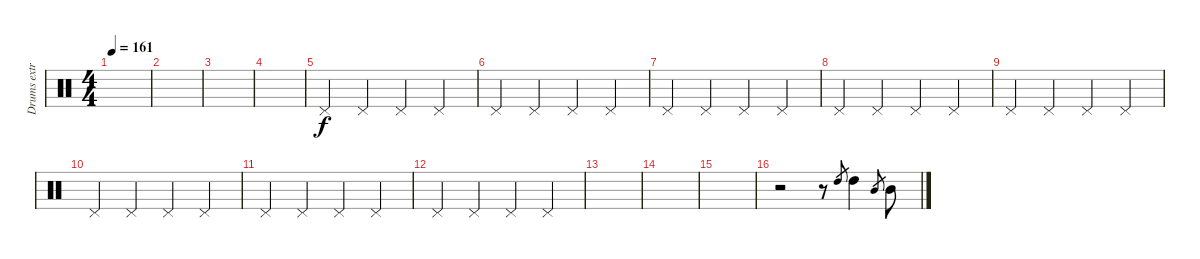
\track ("Drums extra" "Drums extr") {instrument percussion}
\staff {score}
\articulation defaults
\ts (4 4)
\tempo 161
\clef neutral
\ks c
|
|
|
|
"Pedal Hi-Hat (hit)".4 "Pedal Hi-Hat (hit)".4 "Pedal Hi-Hat (hit)".4 "Pedal Hi-Hat (hit)".4 |
"Pedal Hi-Hat (hit)".4 "Pedal Hi-Hat (hit)".4 "Pedal Hi-Hat (hit)".4 "Pedal Hi-Hat (hit)".4 |
"Pedal Hi-Hat (hit)".4 "Pedal Hi-Hat (hit)".4 "Pedal Hi-Hat (hit)".4 "Pedal Hi-Hat (hit)".4 |
"Pedal Hi-Hat (hit)".4 "Pedal Hi-Hat (hit)".4 "Pedal Hi-Hat (hit)".4 "Pedal Hi-Hat (hit)".4 |
"Pedal Hi-Hat (hit)".4 "Pedal Hi-Hat (hit)".4 "Pedal Hi-Hat (hit)".4 "Pedal Hi-Hat (hit)".4 |
"Pedal Hi-Hat (hit)".4 "Pedal Hi-Hat (hit)".4 "Pedal Hi-Hat (hit)".4 "Pedal Hi-Hat (hit)".4 |
"Pedal Hi-Hat (hit)".4 "Pedal Hi-Hat (hit)".4 "Pedal Hi-Hat (hit)".4 "Pedal Hi-Hat (hit)".4 |
"Pedal Hi-Hat (hit)".4 "Pedal Hi-Hat (hit)".4 "Pedal Hi-Hat (hit)".4 "Pedal Hi-Hat (hit)".4 |
|
|
|
r.2 r.8 "High Tom (hit)".8{gr dy f} "High Tom (hit)".4 "Mid Tom (hit)".8{gr} "Mid Tom (hit)".8
